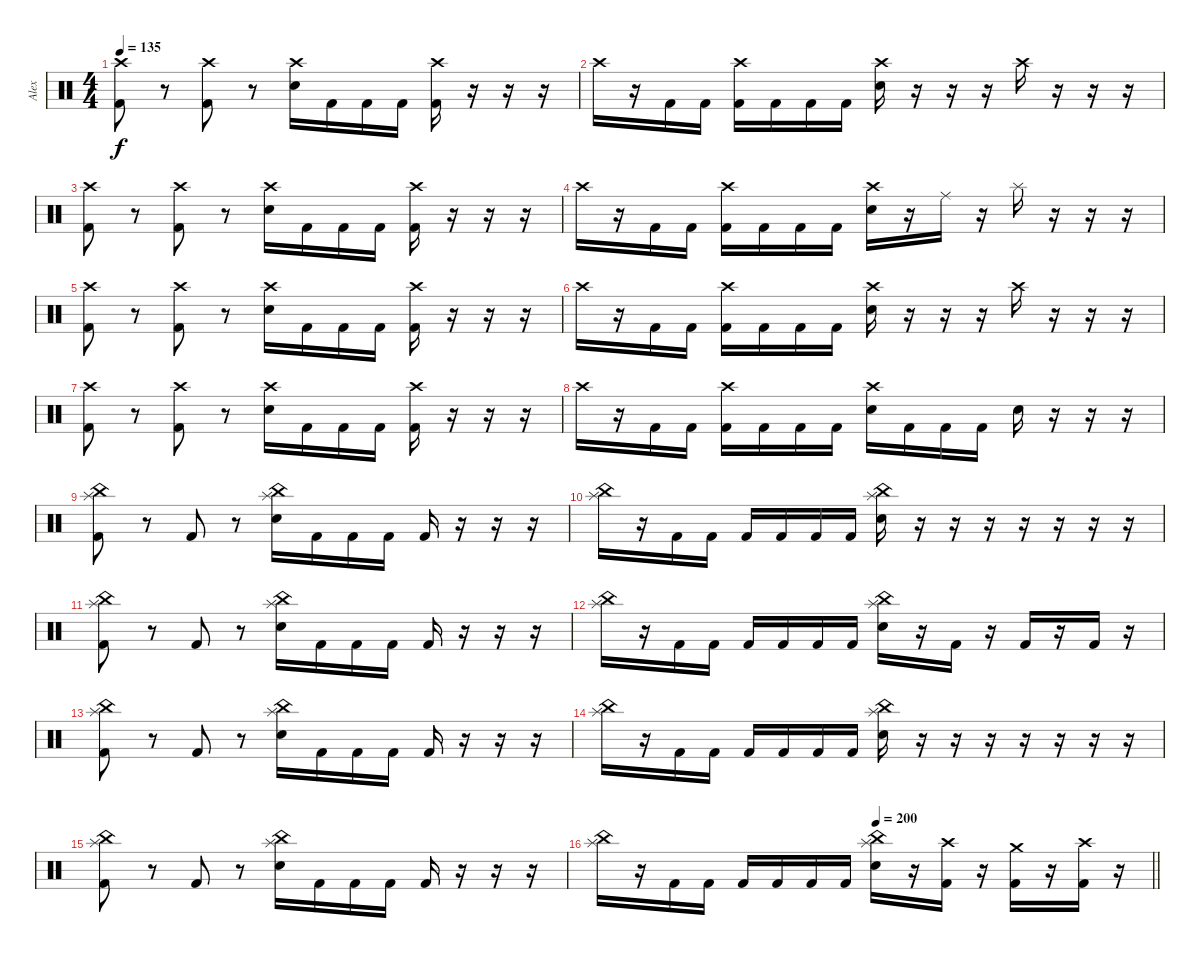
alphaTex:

\track ("Alex" "Alex") {instrument percussion}
\staff {score}
\articulation defaults
\ts (4 4)
\tempo 135
\clef neutral
\ks c
("Crash high (hit)" "Kick (hit) 2").8{dy f} r.8 ("Crash high (hit)" "Kick (hit) 2").8 r.8 ("Crash high (hit)" "Electric Snare (hit)").16 "Kick (hit) 2".16 "Kick (hit) 2".16 "Kick (hit) 2".16 ("Crash high (hit)" "Kick (hit) 2").16 r.16 r.16 r.16 |
"Crash high (hit)".16 r.16 "Kick (hit) 2".16 "Kick (hit) 2".16 ("Crash high (hit)" "Kick (hit) 2").16 "Kick (hit) 2".16 "Kick (hit) 2".16 "Kick (hit) 2".16 ("Crash high (hit)" "Electric Snare (hit)").16 r.16 r.16 r.16 "Crash high (hit)".16 r.16 r.16 r.16 |
("Crash high (hit)" "Kick (hit) 2").8 r.8 ("Crash high (hit)" "Kick (hit) 2").8 r.8 ("Crash high (hit)" "Electric Snare (hit)").16 "Kick (hit) 2".16 "Kick (hit) 2".16 "Kick (hit) 2".16 ("Crash high (hit)" "Kick (hit) 2").16 r.16 r.16 r.16 |
"Crash high (hit)".16 r.16 "Kick (hit) 2".16 "Kick (hit) 2".16 ("Crash high (hit)" "Kick (hit) 2").16 "Kick (hit) 2".16 "Kick (hit) 2".16 "Kick (hit) 2".16 ("Crash high (hit)" "Electric Snare (hit)").16 r.16 "Ride (middle)".16 r.16 "Splash (hit)".16 r.16 r.16 r.16 |
("Crash high (hit)" "Kick (hit) 2").8 r.8 ("Crash high (hit)" "Kick (hit) 2").8 r.8 ("Crash high (hit)" "Electric Snare (hit)").16 "Kick (hit) 2".16 "Kick (hit) 2".16 "Kick (hit) 2".16 ("Crash high (hit)" "Kick (hit) 2").16 r.16 r.16 r.16 |
"Crash high (hit)".16 r.16 "Kick (hit) 2".16 "Kick (hit) 2".16 ("Crash high (hit)" "Kick (hit) 2").16 "Kick (hit) 2".16 "Kick (hit) 2".16 "Kick (hit) 2".16 ("Crash high (hit)" "Electric Snare (hit)").16 r.16 r.16 r.16 "Crash high (hit)".16 r.16 r.16 r.16 |
("Crash high (hit)" "Kick (hit) 2").8 r.8 ("Crash high (hit)" "Kick (hit) 2").8 r.8 ("Crash high (hit)" "Electric Snare (hit)").16 "Kick (hit) 2".16 "Kick (hit) 2".16 "Kick (hit) 2".16 ("Crash high (hit)" "Kick (hit) 2").16 r.16 r.16 r.16 |
"Crash high (hit)".16 r.16 "Kick (hit) 2".16 "Kick (hit) 2".16 ("Crash high (hit)" "Kick (hit) 2").16 "Kick (hit) 2".16 "Kick (hit) 2".16 "Kick (hit) 2".16 ("Crash high (hit)" "Electric Snare (hit)").16 "Kick (hit) 2".16 "Kick (hit) 2".16 "Kick (hit) 2".16 "Electric Snare (hit)".16 r.16 r.16 r.16 |
("China (hit)" "Splash (hit)" "Kick (hit) 2").8 r.8 "Kick (hit) 2".8 r.8 ("China (hit)" "Splash (hit)" "Electric Snare (hit)").16 "Kick (hit) 2".16 "Kick (hit) 2".16 "Kick (hit) 2".16 "Kick (hit) 2".16 r.16 r.16 r.16 |
("China (hit)" "Splash (hit)").16 r.16 "Kick (hit) 2".16 "Kick (hit) 2".16 "Kick (hit) 2".16 "Kick (hit) 2".16 "Kick (hit) 2".16 "Kick (hit) 2".16 ("China (hit)" "Splash (hit)" "Electric Snare (hit)").16 r.16 r.16 r.16 r.16 r.16 r.16 r.16 |
("China (hit)" "Splash (hit)" "Kick (hit) 2").8 r.8 "Kick (hit) 2".8 r.8 ("China (hit)" "Splash (hit)" "Electric Snare (hit)").16 "Kick (hit) 2".16 "Kick (hit) 2".16 "Kick (hit) 2".16 "Kick (hit) 2".16 r.16 r.16 r.16 |
("China (hit)" "Splash (hit)").16 r.16 "Kick (hit) 2".16 "Kick (hit) 2".16 "Kick (hit) 2".16 "Kick (hit) 2".16 "Kick (hit) 2".16 "Kick (hit) 2".16 ("China (hit)" "Splash (hit)" "Electric Snare (hit)").16 r.16 "Kick (hit) 2".16 r.16 "Kick (hit) 2".16 r.16 "Kick (hit) 2".16 r.16 |
("China (hit)" "Splash (hit)" "Kick (hit) 2").8 r.8 "Kick (hit) 2".8 r.8 ("China (hit)" "Splash (hit)" "Electric Snare (hit)").16 "Kick (hit) 2".16 "Kick (hit) 2".16 "Kick (hit) 2".16 "Kick (hit) 2".16 r.16 r.16 r.16 |
("China (hit)" "Splash (hit)").16 r.16 "Kick (hit) 2".16 "Kick (hit) 2".16 "Kick (hit) 2".16 "Kick (hit) 2".16 "Kick (hit) 2".16 "Kick (hit) 2".16 ("China (hit)" "Splash (hit)" "Electric Snare (hit)").16 r.16 r.16 r.16 r.16 r.16 r.16 r.16 |
("China (hit)" "Splash (hit)" "Kick (hit) 2").8 r.8 "Kick (hit) 2".8 r.8 ("China (hit)" "Splash (hit)" "Electric Snare (hit)").16 "Kick (hit) 2".16 "Kick (hit) 2".16 "Kick (hit) 2".16 "Kick (hit) 2".16 r.16 r.16 r.16 |
\tempo (200 0.5)
\barLineRight lightlight
("China (hit)" "Splash (hit)").16 r.16 "Kick (hit) 2".16 "Kick (hit) 2".16 "Kick (hit) 2".16 "Kick (hit) 2".16 "Kick (hit) 2".16 "Kick (hit) 2".16 ("China (hit)" "Splash (hit)" "Electric Snare (hit)").16 r.16 ("Crash high (hit)" "Kick (hit) 2").16 r.16 ("Crash medium (hit)" "Kick (hit) 2").16 r.16 ("Crash high (hit)" "Kick (hit) 2").16 r.16
